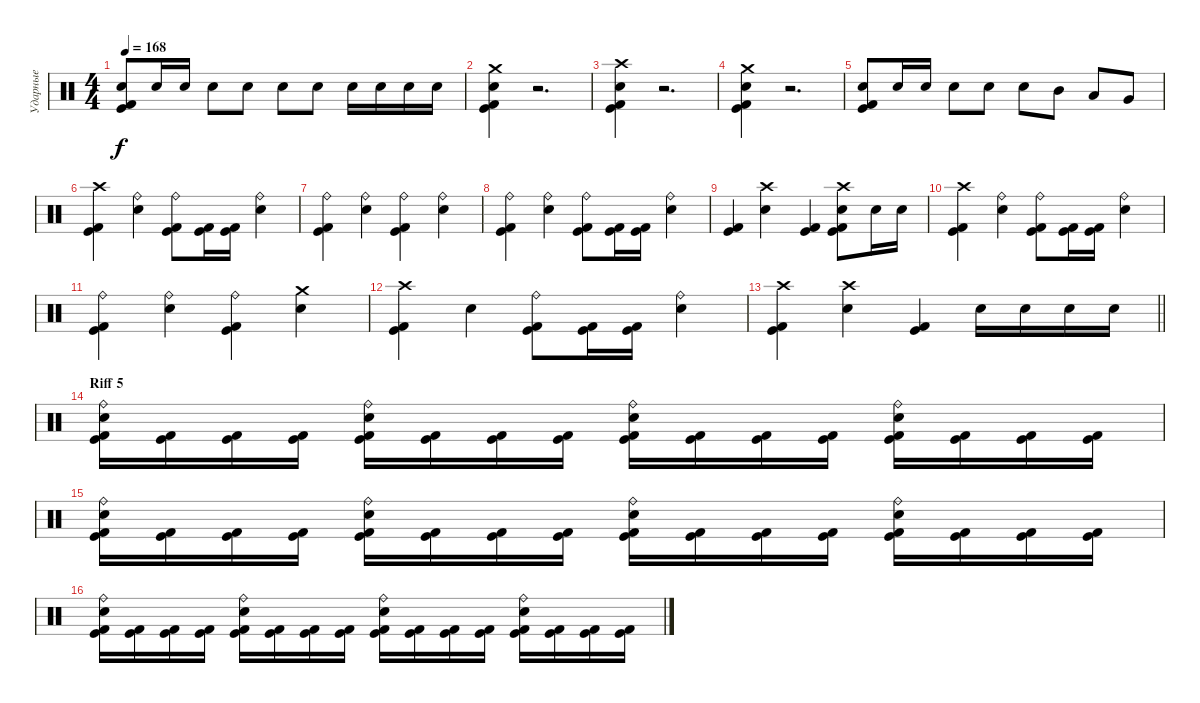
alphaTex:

\track ("Ударные" "Ударные") {instrument percussion}
\staff {score}
\articulation defaults
\ts (4 4)
\tempo 168
\clef neutral
\ks c
("Electric Snare (hit)" "Kick (hit)" "Kick (hit) 2").8{dy f} "Electric Snare (hit)".16 "Electric Snare (hit)".16 "Electric Snare (hit)".8 "Electric Snare (hit)".8 "Electric Snare (hit)".8 "Electric Snare (hit)".8 "Electric Snare (hit)".16 "Electric Snare (hit)".16 "Electric Snare (hit)".16 "Electric Snare (hit)".16 |
("Crash medium (hit)" "Electric Snare (hit)" "Kick (hit)" "Kick (hit) 2").4 r.2{d} |
("Crash high (hit)" "Electric Snare (hit)" "Kick (hit)" "Kick (hit) 2").4 r.2{d} |
("Crash medium (hit)" "Electric Snare (hit)" "Kick (hit)" "Kick (hit) 2").4 r.2{d} |
("Electric Snare (hit)" "Kick (hit)" "Kick (hit) 2").8 "Electric Snare (hit)".16 "Electric Snare (hit)".16 "Electric Snare (hit)".8 "Electric Snare (hit)".8 "Electric Snare (hit)".8 "Mid Tom (hit)".8 "Low Tom (hit)".8 "Very Low Tom (hit)".8 |
("Crash high (hit)" "Kick (hit)" "Kick (hit) 2").4 ("Ride (bell)" "Electric Snare (hit)").4 ("Ride (bell)" "Kick (hit)" "Kick (hit) 2").8 ("Kick (hit)" "Kick (hit) 2").16 ("Kick (hit)" "Kick (hit) 2").16 ("Ride (bell)" "Electric Snare (hit)").4 |
("Ride (bell)" "Kick (hit) 2" "Kick (hit)").4 ("Ride (bell)" "Electric Snare (hit)").4 ("Ride (bell)" "Kick (hit)" "Kick (hit) 2").4 ("Ride (bell)" "Electric Snare (hit)").4 |
("Ride (bell)" "Kick (hit)" "Kick (hit) 2").4 ("Ride (bell)" "Electric Snare (hit)").4 ("Ride (bell)" "Kick (hit)" "Kick (hit) 2").8 ("Kick (hit)" "Kick (hit) 2").16 ("Kick (hit)" "Kick (hit) 2").16 ("Ride (bell)" "Electric Snare (hit)").4 |
("Kick (hit)" "Kick (hit) 2").4 ("Crash high (hit)" "Electric Snare (hit)").4 ("Kick (hit) 2" "Kick (hit)").4 ("Crash high (hit)" "Electric Snare (hit)" "Kick (hit)" "Kick (hit) 2").8 "Electric Snare (hit)".16 "Electric Snare (hit)".16 |
("Crash high (hit)" "Kick (hit)" "Kick (hit) 2").4 ("Ride (bell)" "Electric Snare (hit)").4 ("Ride (bell)" "Kick (hit)" "Kick (hit) 2").8 ("Kick (hit)" "Kick (hit) 2").16 ("Kick (hit)" "Kick (hit) 2").16 ("Ride (bell)" "Electric Snare (hit)").4 |
("Ride (bell)" "Kick (hit) 2" "Kick (hit)").4 ("Ride (bell)" "Electric Snare (hit)").4 ("Ride (bell)" "Kick (hit)" "Kick (hit) 2").4 ("Crash medium (hit)" "Electric Snare (hit)").4 |
("Crash high (hit)" "Kick (hit)" "Kick (hit) 2").4 "Electric Snare (hit)".4 ("Ride (bell)" "Kick (hit)" "Kick (hit) 2").8 ("Kick (hit)" "Kick (hit) 2").16 ("Kick (hit)" "Kick (hit) 2").16 ("Ride (bell)" "Electric Snare (hit)").4 |
\barLineRight lightlight
("Crash high (hit)" "Kick (hit)" "Kick (hit) 2").4 ("Crash high (hit)" "Electric Snare (hit)").4 ("Kick (hit)" "Kick (hit) 2").4 "Electric Snare (hit)".16 "Electric Snare (hit)".16 "Electric Snare (hit)".16 "Electric Snare (hit)".16 |
\section ("" "Riff 5")
("Ride (bell)" "Electric Snare (hit)" "Kick (hit)" "Kick (hit) 2").16 ("Kick (hit)" "Kick (hit) 2").16 ("Kick (hit)" "Kick (hit) 2").16 ("Kick (hit)" "Kick (hit) 2").16 ("Ride (bell)" "Electric Snare (hit)" "Kick (hit)" "Kick (hit) 2").16 ("Kick (hit)" "Kick (hit) 2").16 ("Kick (hit)" "Kick (hit) 2").16 ("Kick (hit)" "Kick (hit) 2").16 ("Ride (bell)" "Electric Snare (hit)" "Kick (hit)" "Kick (hit) 2").16 ("Kick (hit)" "Kick (hit) 2").16 ("Kick (hit)" "Kick (hit) 2").16 ("Kick (hit)" "Kick (hit) 2").16 ("Ride (bell)" "Electric Snare (hit)" "Kick (hit)" "Kick (hit) 2").16 ("Kick (hit)" "Kick (hit) 2").16 ("Kick (hit)" "Kick (hit) 2").16 ("Kick (hit)" "Kick (hit) 2").16 |
("Ride (bell)" "Electric Snare (hit)" "Kick (hit)" "Kick (hit) 2").16 ("Kick (hit)" "Kick (hit) 2").16 ("Kick (hit)" "Kick (hit) 2").16 ("Kick (hit)" "Kick (hit) 2").16 ("Ride (bell)" "Electric Snare (hit)" "Kick (hit)" "Kick (hit) 2").16 ("Kick (hit)" "Kick (hit) 2").16 ("Kick (hit)" "Kick (hit) 2").16 ("Kick (hit)" "Kick (hit) 2").16 ("Ride (bell)" "Electric Snare (hit)" "Kick (hit)" "Kick (hit) 2").16 ("Kick (hit)" "Kick (hit) 2").16 ("Kick (hit)" "Kick (hit) 2").16 ("Kick (hit)" "Kick (hit) 2").16 ("Ride (bell)" "Electric Snare (hit)" "Kick (hit)" "Kick (hit) 2").16 ("Kick (hit)" "Kick (hit) 2").16 ("Kick (hit)" "Kick (hit) 2").16 ("Kick (hit)" "Kick (hit) 2").16 |
("Ride (bell)" "Electric Snare (hit)" "Kick (hit)" "Kick (hit) 2").16 ("Kick (hit)" "Kick (hit) 2").16 ("Kick (hit)" "Kick (hit) 2").16 ("Kick (hit)" "Kick (hit) 2").16 ("Ride (bell)" "Electric Snare (hit)" "Kick (hit)" "Kick (hit) 2").16 ("Kick (hit)" "Kick (hit) 2").16 ("Kick (hit)" "Kick (hit) 2").16 ("Kick (hit)" "Kick (hit) 2").16 ("Ride (bell)" "Electric Snare (hit)" "Kick (hit)" "Kick (hit) 2").16 ("Kick (hit)" "Kick (hit) 2").16 ("Kick (hit)" "Kick (hit) 2").16 ("Kick (hit)" "Kick (hit) 2").16 ("Ride (bell)" "Electric Snare (hit)" "Kick (hit)" "Kick (hit) 2").16 ("Kick (hit)" "Kick (hit) 2").16 ("Kick (hit)" "Kick (hit) 2").16 ("Kick (hit)" "Kick (hit) 2").16
